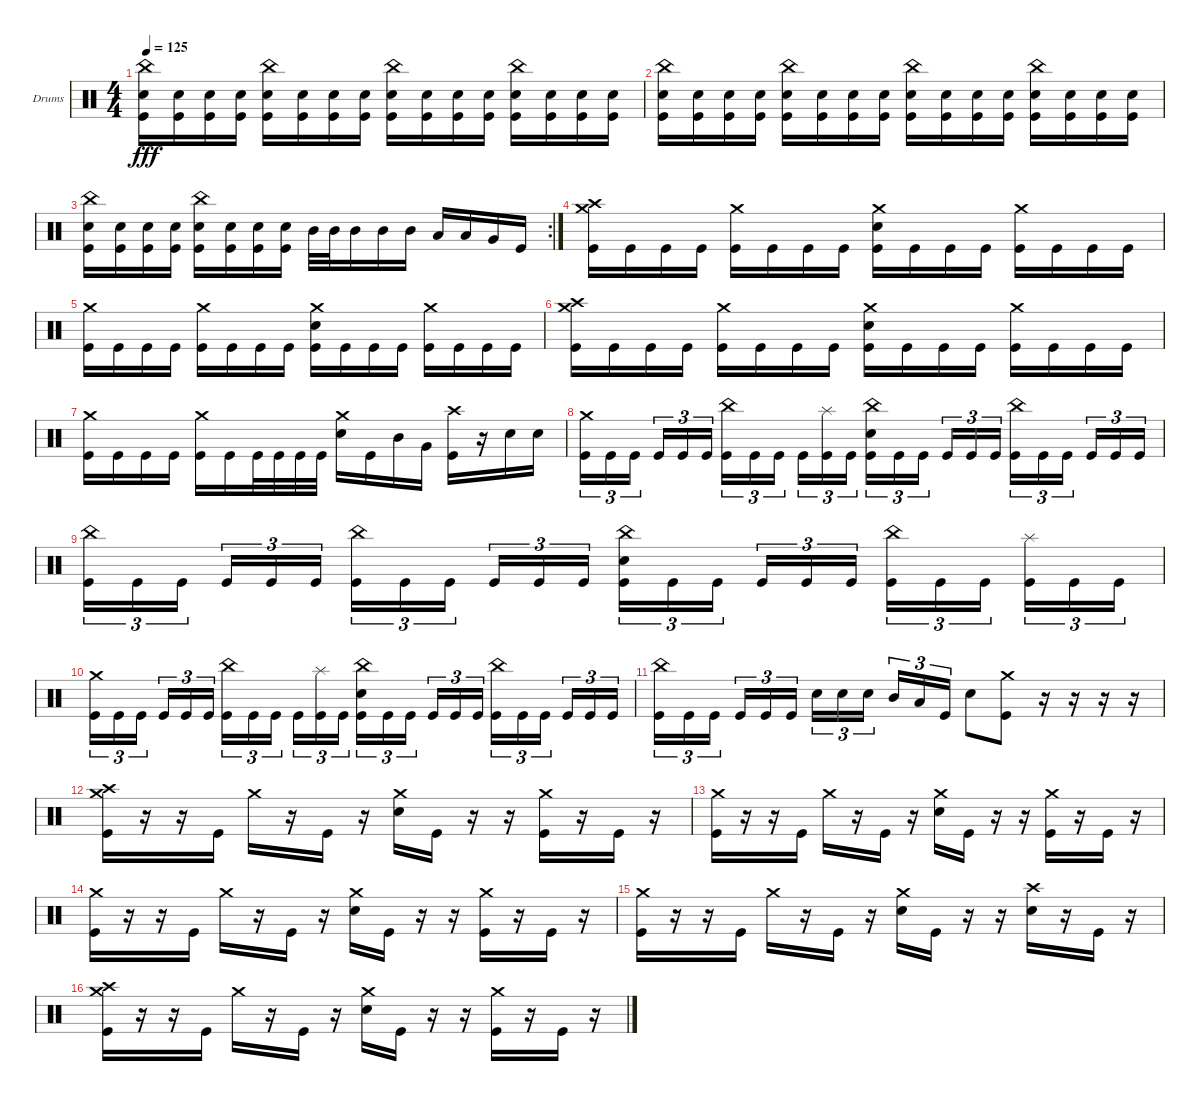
\bracketExtendMode groupsimilarinstruments
\firstSystemTrackNameOrientation horizontal
\otherSystemsTrackNameOrientation horizontal
\track ("Drumkit" "Drums") {instrument percussion}
\staff {score}
\articulation defaults
\ts (4 4)
\tempo 125
\clef neutral
\ks c
("Snare (hit) 2" "Kick (hit)" "China (hit)").16{dy fff} ("Snare (hit) 2" "Kick (hit)").16 ("Snare (hit) 2" "Kick (hit)").16 ("Snare (hit) 2" "Kick (hit)").16 ("Snare (hit) 2" "Kick (hit)" "China (hit)").16 ("Snare (hit) 2" "Kick (hit)").16 ("Snare (hit) 2" "Kick (hit)").16 ("Snare (hit) 2" "Kick (hit)").16 ("Snare (hit) 2" "Kick (hit)" "China (hit)").16 ("Snare (hit) 2" "Kick (hit)").16 ("Snare (hit) 2" "Kick (hit)").16 ("Snare (hit) 2" "Kick (hit)").16 ("Snare (hit) 2" "Kick (hit)" "China (hit)").16 ("Snare (hit) 2" "Kick (hit)").16 ("Snare (hit) 2" "Kick (hit)").16 ("Snare (hit) 2" "Kick (hit)").16 |
("Snare (hit) 2" "Kick (hit)" "China (hit)").16 ("Snare (hit) 2" "Kick (hit)").16 ("Snare (hit) 2" "Kick (hit)").16 ("Snare (hit) 2" "Kick (hit)").16 ("Snare (hit) 2" "Kick (hit)" "China (hit)").16 ("Snare (hit) 2" "Kick (hit)").16 ("Snare (hit) 2" "Kick (hit)").16 ("Snare (hit) 2" "Kick (hit)").16 ("Snare (hit) 2" "Kick (hit)" "China (hit)").16 ("Snare (hit) 2" "Kick (hit)").16 ("Snare (hit) 2" "Kick (hit)").16 ("Snare (hit) 2" "Kick (hit)").16 ("Snare (hit) 2" "Kick (hit)" "China (hit)").16 ("Snare (hit) 2" "Kick (hit)").16 ("Snare (hit) 2" "Kick (hit)").16 ("Snare (hit) 2" "Kick (hit)").16 |
\rc 2
("Snare (hit) 2" "Kick (hit)" "China (hit)").16 ("Snare (hit) 2" "Kick (hit)").16 ("Snare (hit) 2" "Kick (hit)").16 ("Snare (hit) 2" "Kick (hit)").16 ("Snare (hit) 2" "Kick (hit)" "China (hit)").16 ("Snare (hit) 2" "Kick (hit)").16 ("Snare (hit) 2" "Kick (hit)").16 ("Snare (hit) 2" "Kick (hit)").16 "Mid Tom (hit)".32 "Mid Tom (hit)".32 "Mid Tom (hit)".16 "Mid Tom (hit)".16 "Mid Tom (hit)".16 "Low Tom (hit)".16 "Low Tom (hit)".16 "Very Low Tom (hit)".16 "Kick (hit)".16 |
("Kick (hit)" "Crash medium (hit)" "Crash high (hit)").16 "Kick (hit)".16 "Kick (hit)".16 "Kick (hit)".16 ("Kick (hit)" "Crash medium (hit)").16 "Kick (hit)".16 "Kick (hit)".16 "Kick (hit)".16 ("Kick (hit)" "Crash medium (hit)" "Snare (hit) 2").16 "Kick (hit)".16 "Kick (hit)".16 "Kick (hit)".16 ("Kick (hit)" "Crash medium (hit)").16 "Kick (hit)".16 "Kick (hit)".16 "Kick (hit)".16 |
("Kick (hit)" "Crash medium (hit)").16 "Kick (hit)".16 "Kick (hit)".16 "Kick (hit)".16 ("Kick (hit)" "Crash medium (hit)").16 "Kick (hit)".16 "Kick (hit)".16 "Kick (hit)".16 ("Kick (hit)" "Crash medium (hit)" "Snare (hit) 2").16 "Kick (hit)".16 "Kick (hit)".16 "Kick (hit)".16 ("Kick (hit)" "Crash medium (hit)").16 "Kick (hit)".16 "Kick (hit)".16 "Kick (hit)".16 |
("Kick (hit)" "Crash medium (hit)" "Crash high (hit)").16 "Kick (hit)".16 "Kick (hit)".16 "Kick (hit)".16 ("Kick (hit)" "Crash medium (hit)").16 "Kick (hit)".16 "Kick (hit)".16 "Kick (hit)".16 ("Kick (hit)" "Crash medium (hit)" "Snare (hit) 2").16 "Kick (hit)".16 "Kick (hit)".16 "Kick (hit)".16 ("Kick (hit)" "Crash medium (hit)").16 "Kick (hit)".16 "Kick (hit)".16 "Kick (hit)".16 |
("Kick (hit)" "Crash medium (hit)").16 "Kick (hit)".16 "Kick (hit)".16 "Kick (hit)".16 ("Kick (hit)" "Crash medium (hit)").16 "Kick (hit)".16 "Kick (hit)".32 "Kick (hit)".32 "Kick (hit)".32 "Kick (hit)".32 ("Crash medium (hit)" "Snare (hit) 2").16 "Kick (hit)".16 "Mid Tom (hit)".16 "Very Low Tom (hit)".16 ("Kick (hit)" "Crash high (hit)").16 r.16 "Snare (hit) 2".16 "Snare (hit) 2".16 |
("Kick (hit)" "Crash medium (hit)").16{tu (3 2)} "Kick (hit)".16{tu (3 2)} "Kick (hit)".16{tu (3 2)} "Kick (hit)".16{tu (3 2)} "Kick (hit)".16{tu (3 2)} "Kick (hit)".16{tu (3 2)} ("Kick (hit)" "China (hit)").16{tu (3 2)} "Kick (hit)".16{tu (3 2)} "Kick (hit)".16{tu (3 2)} "Kick (hit)".16{tu (3 2)} ("Kick (hit)" "Splash (hit)").16{tu (3 2)} "Kick (hit)".16{tu (3 2)} ("Kick (hit)" "China (hit)" "Snare (hit) 2").16{tu (3 2)} "Kick (hit)".16{tu (3 2)} "Kick (hit)".16{tu (3 2)} "Kick (hit)".16{tu (3 2)} "Kick (hit)".16{tu (3 2)} "Kick (hit)".16{tu (3 2)} ("Kick (hit)" "China (hit)").16{tu (3 2)} "Kick (hit)".16{tu (3 2)} "Kick (hit)".16{tu (3 2)} "Kick (hit)".16{tu (3 2)} "Kick (hit)".16{tu (3 2)} "Kick (hit)".16{tu (3 2)} |
("Kick (hit)" "China (hit)").16{tu (3 2)} "Kick (hit)".16{tu (3 2)} "Kick (hit)".16{tu (3 2)} "Kick (hit)".16{tu (3 2)} "Kick (hit)".16{tu (3 2)} "Kick (hit)".16{tu (3 2)} ("Kick (hit)" "China (hit)").16{tu (3 2)} "Kick (hit)".16{tu (3 2)} "Kick (hit)".16{tu (3 2)} "Kick (hit)".16{tu (3 2)} "Kick (hit)".16{tu (3 2)} "Kick (hit)".16{tu (3 2)} ("Kick (hit)" "China (hit)" "Snare (hit) 2").16{tu (3 2)} "Kick (hit)".16{tu (3 2)} "Kick (hit)".16{tu (3 2)} "Kick (hit)".16{tu (3 2)} "Kick (hit)".16{tu (3 2)} "Kick (hit)".16{tu (3 2)} ("Kick (hit)" "China (hit)").16{tu (3 2)} "Kick (hit)".16{tu (3 2)} "Kick (hit)".16{tu (3 2)} ("Kick (hit)" "Splash (hit)").16{tu (3 2)} "Kick (hit)".16{tu (3 2)} "Kick (hit)".16{tu (3 2)} |
("Kick (hit)" "Crash medium (hit)").16{tu (3 2)} "Kick (hit)".16{tu (3 2)} "Kick (hit)".16{tu (3 2)} "Kick (hit)".16{tu (3 2)} "Kick (hit)".16{tu (3 2)} "Kick (hit)".16{tu (3 2)} ("Kick (hit)" "China (hit)").16{tu (3 2)} "Kick (hit)".16{tu (3 2)} "Kick (hit)".16{tu (3 2)} "Kick (hit)".16{tu (3 2)} ("Kick (hit)" "Splash (hit)").16{tu (3 2)} "Kick (hit)".16{tu (3 2)} ("Kick (hit)" "China (hit)" "Snare (hit) 2").16{tu (3 2)} "Kick (hit)".16{tu (3 2)} "Kick (hit)".16{tu (3 2)} "Kick (hit)".16{tu (3 2)} "Kick (hit)".16{tu (3 2)} "Kick (hit)".16{tu (3 2)} ("Kick (hit)" "China (hit)").16{tu (3 2)} "Kick (hit)".16{tu (3 2)} "Kick (hit)".16{tu (3 2)} "Kick (hit)".16{tu (3 2)} "Kick (hit)".16{tu (3 2)} "Kick (hit)".16{tu (3 2)} |
("Kick (hit)" "China (hit)").16{tu (3 2)} "Kick (hit)".16{tu (3 2)} "Kick (hit)".16{tu (3 2)} "Kick (hit)".16{tu (3 2)} "Kick (hit)".16{tu (3 2)} "Kick (hit)".16{tu (3 2)} "Snare (hit) 2".16{tu (3 2)} "Snare (hit) 2".16{tu (3 2)} "Snare (hit) 2".16{tu (3 2)} "Mid Tom (hit)".16{tu (3 2)} "Low Tom (hit)".16{tu (3 2)} "Kick (hit)".16{tu (3 2)} "Snare (hit) 2".8 ("Kick (hit)" "Crash medium (hit)").8 r.16 r.16 r.16 r.16 |
("Crash high (hit)" "Crash medium (hit)" "Kick (hit)").16 r.16 r.16 "Kick (hit)".16 "Crash medium (hit)".16 r.16 "Kick (hit)".16 r.16 ("Snare (hit) 2" "Crash medium (hit)").16 "Kick (hit)".16 r.16 r.16 ("Kick (hit)" "Crash medium (hit)").16 r.16 "Kick (hit)".16 r.16 |
("Kick (hit)" "Crash medium (hit)").16 r.16 r.16 "Kick (hit)".16 "Crash medium (hit)".16 r.16 "Kick (hit)".16 r.16 ("Snare (hit) 2" "Crash medium (hit)").16 "Kick (hit)".16 r.16 r.16 ("Kick (hit)" "Crash medium (hit)").16 r.16 "Kick (hit)".16 r.16 |
("Kick (hit)" "Crash medium (hit)").16 r.16 r.16 "Kick (hit)".16 "Crash medium (hit)".16 r.16 "Kick (hit)".16 r.16 ("Snare (hit) 2" "Crash medium (hit)").16 "Kick (hit)".16 r.16 r.16 ("Kick (hit)" "Crash medium (hit)").16 r.16 "Kick (hit)".16 r.16 |
("Kick (hit)" "Crash medium (hit)").16 r.16 r.16 "Kick (hit)".16 "Crash medium (hit)".16 r.16 "Kick (hit)".16 r.16 ("Snare (hit) 2" "Crash medium (hit)").16 "Kick (hit)".16 r.16 r.16 ("Snare (hit) 2" "Crash high (hit)").16 r.16 "Kick (hit)".16 r.16 |
("Crash high (hit)" "Crash medium (hit)" "Kick (hit)").16 r.16 r.16 "Kick (hit)".16 "Crash medium (hit)".16 r.16 "Kick (hit)".16 r.16 ("Snare (hit) 2" "Crash medium (hit)").16 "Kick (hit)".16 r.16 r.16 ("Kick (hit)" "Crash medium (hit)").16 r.16 "Kick (hit)".16 r.16
